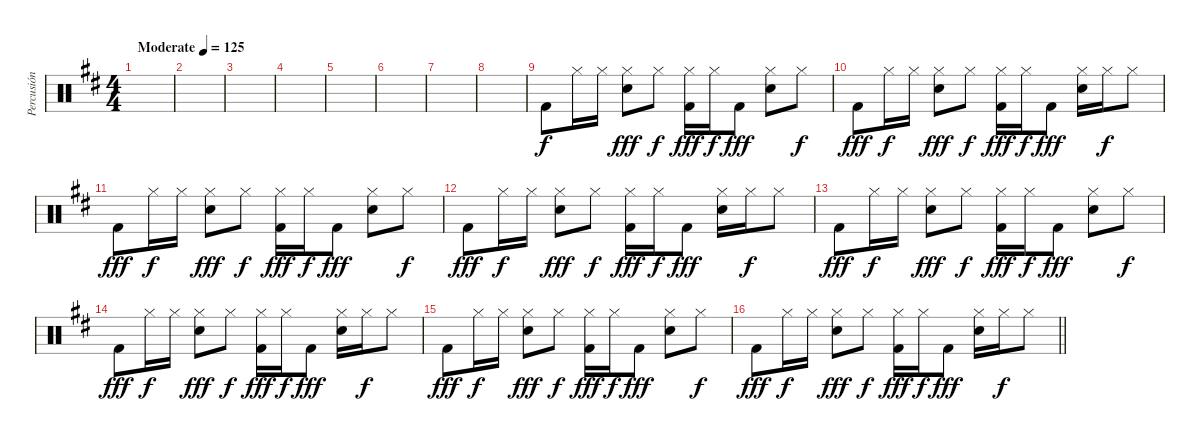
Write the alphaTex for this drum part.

\track ("Percusión" "Percusión") {instrument percussion}
\staff {score}
\articulation defaults
\ts (4 4)
\tempo (125 "Moderate")
\clef neutral
\ks d
|
|
|
|
|
|
|
|
"Kick (hit) 2".8 "Hi-Hat (closed)".16{dy f} "Hi-Hat (closed)".16 ("Hi-Hat (closed)" "Electric Snare (hit)").8{dy fff} "Hi-Hat (closed)".8{dy f} ("Hi-Hat (closed)" "Kick (hit) 2").16{dy fff} "Hi-Hat (closed)".16{dy f} "Kick (hit) 2".8{dy fff} ("Hi-Hat (closed)" "Electric Snare (hit)").8 "Hi-Hat (closed)".8{dy f} |
"Kick (hit) 2".8{dy fff} "Hi-Hat (closed)".16{dy f} "Hi-Hat (closed)".16 ("Hi-Hat (closed)" "Electric Snare (hit)").8{dy fff} "Hi-Hat (closed)".8{dy f} ("Hi-Hat (closed)" "Kick (hit) 2").16{dy fff} "Hi-Hat (closed)".16{dy f} "Kick (hit) 2".8{dy fff} ("Hi-Hat (closed)" "Electric Snare (hit)").16 "Hi-Hat (closed)".16{dy f} "Hi-Hat (closed)".8 |
"Kick (hit) 2".8{dy fff} "Hi-Hat (closed)".16{dy f} "Hi-Hat (closed)".16 ("Hi-Hat (closed)" "Electric Snare (hit)").8{dy fff} "Hi-Hat (closed)".8{dy f} ("Hi-Hat (closed)" "Kick (hit) 2").16{dy fff} "Hi-Hat (closed)".16{dy f} "Kick (hit) 2".8{dy fff} ("Hi-Hat (closed)" "Electric Snare (hit)").8 "Hi-Hat (closed)".8{dy f} |
"Kick (hit) 2".8{dy fff} "Hi-Hat (closed)".16{dy f} "Hi-Hat (closed)".16 ("Hi-Hat (closed)" "Electric Snare (hit)").8{dy fff} "Hi-Hat (closed)".8{dy f} ("Hi-Hat (closed)" "Kick (hit) 2").16{dy fff} "Hi-Hat (closed)".16{dy f} "Kick (hit) 2".8{dy fff} ("Hi-Hat (closed)" "Electric Snare (hit)").16 "Hi-Hat (closed)".16{dy f} "Hi-Hat (closed)".8 |
"Kick (hit) 2".8{dy fff} "Hi-Hat (closed)".16{dy f} "Hi-Hat (closed)".16 ("Hi-Hat (closed)" "Electric Snare (hit)").8{dy fff} "Hi-Hat (closed)".8{dy f} ("Hi-Hat (closed)" "Kick (hit) 2").16{dy fff} "Hi-Hat (closed)".16{dy f} "Kick (hit) 2".8{dy fff} ("Hi-Hat (closed)" "Electric Snare (hit)").8 "Hi-Hat (closed)".8{dy f} |
"Kick (hit) 2".8{dy fff} "Hi-Hat (closed)".16{dy f} "Hi-Hat (closed)".16 ("Hi-Hat (closed)" "Electric Snare (hit)").8{dy fff} "Hi-Hat (closed)".8{dy f} ("Hi-Hat (closed)" "Kick (hit) 2").16{dy fff} "Hi-Hat (closed)".16{dy f} "Kick (hit) 2".8{dy fff} ("Hi-Hat (closed)" "Electric Snare (hit)").16 "Hi-Hat (closed)".16{dy f} "Hi-Hat (closed)".8 |
"Kick (hit) 2".8{dy fff} "Hi-Hat (closed)".16{dy f} "Hi-Hat (closed)".16 ("Hi-Hat (closed)" "Electric Snare (hit)").8{dy fff} "Hi-Hat (closed)".8{dy f} ("Hi-Hat (closed)" "Kick (hit) 2").16{dy fff} "Hi-Hat (closed)".16{dy f} "Kick (hit) 2".8{dy fff} ("Hi-Hat (closed)" "Electric Snare (hit)").8 "Hi-Hat (closed)".8{dy f} |
\barLineRight lightlight "Kick (hit) 2".8{dy fff} "Hi-Hat (closed)".16{dy f} "Hi-Hat (closed)".16
("Hi-Hat (closed)" "Electric Snare (hit)").8{dy fff} "Hi-Hat (closed)".8{dy f} ("Hi-Hat (closed)" "Kick (hit) 2").16{dy fff} "Hi-Hat (closed)".16{dy f} "Kick (hit) 2".8{dy fff} ("Hi-Hat (closed)" "Electric Snare (hit)").16 "Hi-Hat (closed)".16{dy f} "Hi-Hat (closed)".8
